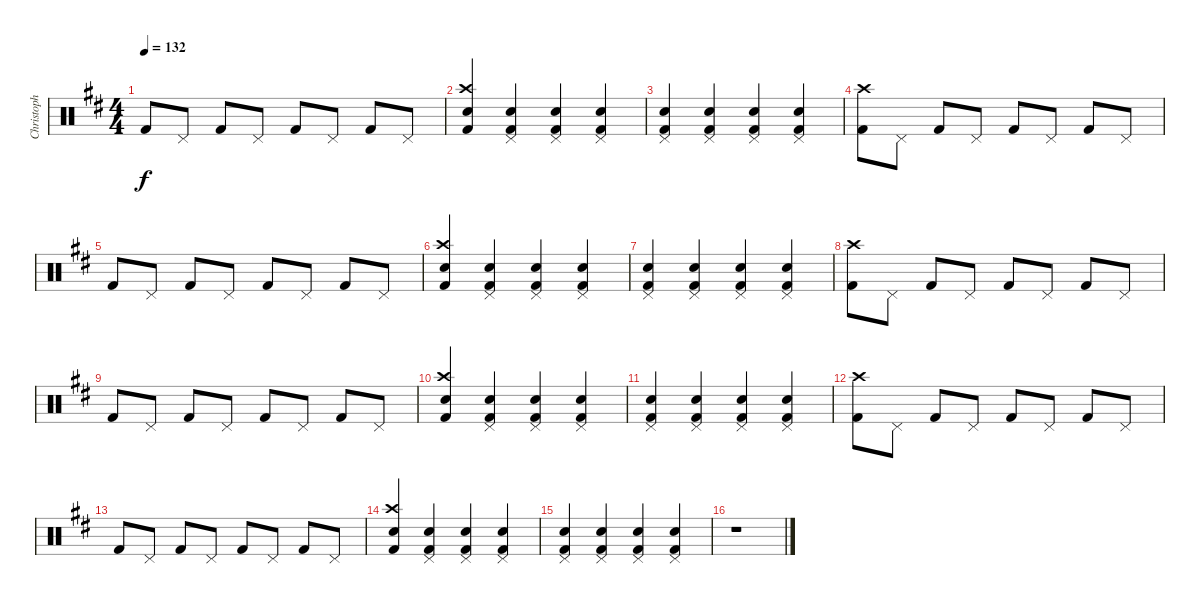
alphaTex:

\track ("Christoph Doom Schneider - Drums" "Christoph ") {instrument percussion}
\staff {score}
\articulation defaults
\ts (4 4)
\tempo 132
\clef neutral
\ks d "Kick (hit) 2".8{dy f} "Pedal Hi-Hat (hit)".8 "Kick (hit) 2".8 "Pedal Hi-Hat (hit)".8 "Kick (hit) 2".8 "Pedal Hi-Hat (hit)".8 "Kick (hit) 2".8 "Pedal Hi-Hat (hit)".8
|
("Crash high (hit)" "Snare (hit) 2" "Kick (hit) 2").4 ("Pedal Hi-Hat (hit)" "Snare (hit) 2" "Kick (hit) 2").4 ("Pedal Hi-Hat (hit)" "Snare (hit) 2" "Kick (hit) 2").4 ("Pedal Hi-Hat (hit)" "Snare (hit) 2" "Kick (hit) 2").4 |
("Pedal Hi-Hat (hit)" "Snare (hit) 2" "Kick (hit) 2").4 ("Pedal Hi-Hat (hit)" "Snare (hit) 2" "Kick (hit) 2").4 ("Pedal Hi-Hat (hit)" "Snare (hit) 2" "Kick (hit) 2").4 ("Pedal Hi-Hat (hit)" "Snare (hit) 2" "Kick (hit) 2").4 |
("Crash high (hit)" "Kick (hit) 2").8 "Pedal Hi-Hat (hit)".8 "Kick (hit) 2".8 "Pedal Hi-Hat (hit)".8 "Kick (hit) 2".8 "Pedal Hi-Hat (hit)".8 "Kick (hit) 2".8 "Pedal Hi-Hat (hit)".8 |
"Kick (hit) 2".8 "Pedal Hi-Hat (hit)".8 "Kick (hit) 2".8 "Pedal Hi-Hat (hit)".8 "Kick (hit) 2".8 "Pedal Hi-Hat (hit)".8 "Kick (hit) 2".8 "Pedal Hi-Hat (hit)".8 |
("Crash high (hit)" "Snare (hit) 2" "Kick (hit) 2").4 ("Pedal Hi-Hat (hit)" "Snare (hit) 2" "Kick (hit) 2").4 ("Pedal Hi-Hat (hit)" "Snare (hit) 2" "Kick (hit) 2").4 ("Pedal Hi-Hat (hit)" "Snare (hit) 2" "Kick (hit) 2").4 |
("Pedal Hi-Hat (hit)" "Snare (hit) 2" "Kick (hit) 2").4 ("Pedal Hi-Hat (hit)" "Snare (hit) 2" "Kick (hit) 2").4 ("Pedal Hi-Hat (hit)" "Snare (hit) 2" "Kick (hit) 2").4 ("Pedal Hi-Hat (hit)" "Snare (hit) 2" "Kick (hit) 2").4 |
("Crash high (hit)" "Kick (hit) 2").8 "Pedal Hi-Hat (hit)".8 "Kick (hit) 2".8 "Pedal Hi-Hat (hit)".8 "Kick (hit) 2".8 "Pedal Hi-Hat (hit)".8 "Kick (hit) 2".8 "Pedal Hi-Hat (hit)".8 |
"Kick (hit) 2".8 "Pedal Hi-Hat (hit)".8 "Kick (hit) 2".8 "Pedal Hi-Hat (hit)".8 "Kick (hit) 2".8 "Pedal Hi-Hat (hit)".8 "Kick (hit) 2".8 "Pedal Hi-Hat (hit)".8 |
("Crash high (hit)" "Snare (hit) 2" "Kick (hit) 2").4 ("Pedal Hi-Hat (hit)" "Snare (hit) 2" "Kick (hit) 2").4 ("Pedal Hi-Hat (hit)" "Snare (hit) 2" "Kick (hit) 2").4 ("Pedal Hi-Hat (hit)" "Snare (hit) 2" "Kick (hit) 2").4 |
("Pedal Hi-Hat (hit)" "Snare (hit) 2" "Kick (hit) 2").4 ("Pedal Hi-Hat (hit)" "Snare (hit) 2" "Kick (hit) 2").4 ("Pedal Hi-Hat (hit)" "Snare (hit) 2" "Kick (hit) 2").4 ("Pedal Hi-Hat (hit)" "Snare (hit) 2" "Kick (hit) 2").4 |
("Crash high (hit)" "Kick (hit) 2").8 "Pedal Hi-Hat (hit)".8 "Kick (hit) 2".8 "Pedal Hi-Hat (hit)".8 "Kick (hit) 2".8 "Pedal Hi-Hat (hit)".8 "Kick (hit) 2".8 "Pedal Hi-Hat (hit)".8 |
"Kick (hit) 2".8 "Pedal Hi-Hat (hit)".8 "Kick (hit) 2".8 "Pedal Hi-Hat (hit)".8 "Kick (hit) 2".8 "Pedal Hi-Hat (hit)".8 "Kick (hit) 2".8 "Pedal Hi-Hat (hit)".8 |
("Crash high (hit)" "Snare (hit) 2" "Kick (hit) 2").4 ("Pedal Hi-Hat (hit)" "Snare (hit) 2" "Kick (hit) 2").4 ("Pedal Hi-Hat (hit)" "Snare (hit) 2" "Kick (hit) 2").4 ("Pedal Hi-Hat (hit)" "Snare (hit) 2" "Kick (hit) 2").4 |
("Pedal Hi-Hat (hit)" "Snare (hit) 2" "Kick (hit) 2").4 ("Pedal Hi-Hat (hit)" "Snare (hit) 2" "Kick (hit) 2").4 ("Pedal Hi-Hat (hit)" "Snare (hit) 2" "Kick (hit) 2").4 ("Pedal Hi-Hat (hit)" "Snare (hit) 2" "Kick (hit) 2").4 |
r.1
